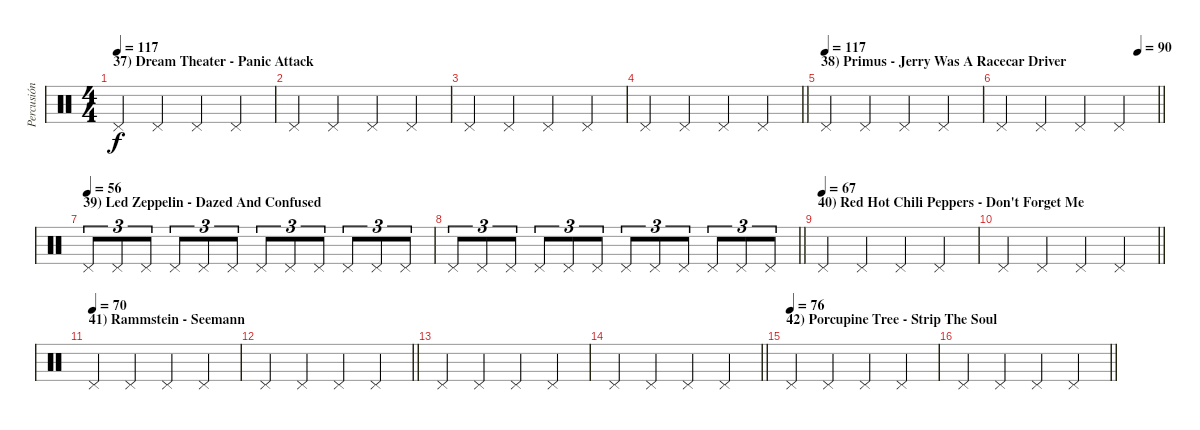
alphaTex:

\track ("Percusión" "Percusión") {instrument percussion}
\staff {score}
\articulation defaults
\ts (4 4)
\section ("" "37) Dream Theater - Panic Attack")
\tempo 117
\clef neutral
\ks c "Pedal Hi-Hat (hit)".4{dy f} "Pedal Hi-Hat (hit)".4 "Pedal Hi-Hat (hit)".4 "Pedal Hi-Hat (hit)".4
|
"Pedal Hi-Hat (hit)".4 "Pedal Hi-Hat (hit)".4 "Pedal Hi-Hat (hit)".4 "Pedal Hi-Hat (hit)".4 |
"Pedal Hi-Hat (hit)".4 "Pedal Hi-Hat (hit)".4 "Pedal Hi-Hat (hit)".4 "Pedal Hi-Hat (hit)".4 |
\barLineRight lightlight "Pedal Hi-Hat (hit)".4 "Pedal Hi-Hat (hit)".4 "Pedal Hi-Hat (hit)".4 "Pedal Hi-Hat (hit)".4
|
\section ("" "38) Primus - Jerry Was A Racecar Driver")
\tempo (117)
"Pedal Hi-Hat (hit)".4 "Pedal Hi-Hat (hit)".4 "Pedal Hi-Hat (hit)".4 "Pedal Hi-Hat (hit)".4 |
\tempo (90 0.875)
\barLineRight lightlight "Pedal Hi-Hat (hit)".4 "Pedal Hi-Hat (hit)".4 "Pedal Hi-Hat (hit)".4 "Pedal Hi-Hat (hit)".4
|
\section ("" "39) Led Zeppelin - Dazed And Confused")
\tempo (56)
"Pedal Hi-Hat (hit)".8{tu (3 2)} "Pedal Hi-Hat (hit)".8{tu (3 2)} "Pedal Hi-Hat (hit)".8{tu (3 2)} "Pedal Hi-Hat (hit)".8{tu (3 2)} "Pedal Hi-Hat (hit)".8{tu (3 2)} "Pedal Hi-Hat (hit)".8{tu (3 2)} "Pedal Hi-Hat (hit)".8{tu (3 2)} "Pedal Hi-Hat (hit)".8{tu (3 2)} "Pedal Hi-Hat (hit)".8{tu (3 2)} "Pedal Hi-Hat (hit)".8{tu (3 2)} "Pedal Hi-Hat (hit)".8{tu (3 2)} "Pedal Hi-Hat (hit)".8{tu (3 2)} |
\barLineRight lightlight "Pedal Hi-Hat (hit)".8{tu (3 2)} "Pedal Hi-Hat (hit)".8{tu (3 2)} "Pedal Hi-Hat (hit)".8{tu (3 2)} "Pedal Hi-Hat (hit)".8{tu (3 2)} "Pedal Hi-Hat (hit)".8{tu (3 2)} "Pedal Hi-Hat (hit)".8{tu (3 2)} "Pedal Hi-Hat (hit)".8{tu (3 2)} "Pedal Hi-Hat (hit)".8{tu (3 2)} "Pedal Hi-Hat (hit)".8{tu (3 2)} "Pedal Hi-Hat (hit)".8{tu (3 2)} "Pedal Hi-Hat (hit)".8{tu (3 2)} "Pedal Hi-Hat (hit)".8{tu (3 2)}
|
\section ("" "40) Red Hot Chili Peppers - Don't Forget Me")
\tempo (67)
"Pedal Hi-Hat (hit)".4 "Pedal Hi-Hat (hit)".4 "Pedal Hi-Hat (hit)".4 "Pedal Hi-Hat (hit)".4 |
\barLineRight lightlight "Pedal Hi-Hat (hit)".4 "Pedal Hi-Hat (hit)".4 "Pedal Hi-Hat (hit)".4 "Pedal Hi-Hat (hit)".4
|
\section ("" "41) Rammstein - Seemann")
\tempo (70)
"Pedal Hi-Hat (hit)".4 "Pedal Hi-Hat (hit)".4 "Pedal Hi-Hat (hit)".4 "Pedal Hi-Hat (hit)".4 |
\barLineRight lightlight "Pedal Hi-Hat (hit)".4 "Pedal Hi-Hat (hit)".4 "Pedal Hi-Hat (hit)".4 "Pedal Hi-Hat (hit)".4
|
"Pedal Hi-Hat (hit)".4 "Pedal Hi-Hat (hit)".4 "Pedal Hi-Hat (hit)".4 "Pedal Hi-Hat (hit)".4 |
\barLineRight lightlight "Pedal Hi-Hat (hit)".4 "Pedal Hi-Hat (hit)".4 "Pedal Hi-Hat (hit)".4 "Pedal Hi-Hat (hit)".4
|
\section ("" "42) Porcupine Tree - Strip The Soul")
\tempo (76)
"Pedal Hi-Hat (hit)".4 "Pedal Hi-Hat (hit)".4 "Pedal Hi-Hat (hit)".4 "Pedal Hi-Hat (hit)".4 |
\barLineRight lightlight "Pedal Hi-Hat (hit)".4 "Pedal Hi-Hat (hit)".4 "Pedal Hi-Hat (hit)".4 "Pedal Hi-Hat (hit)".4
